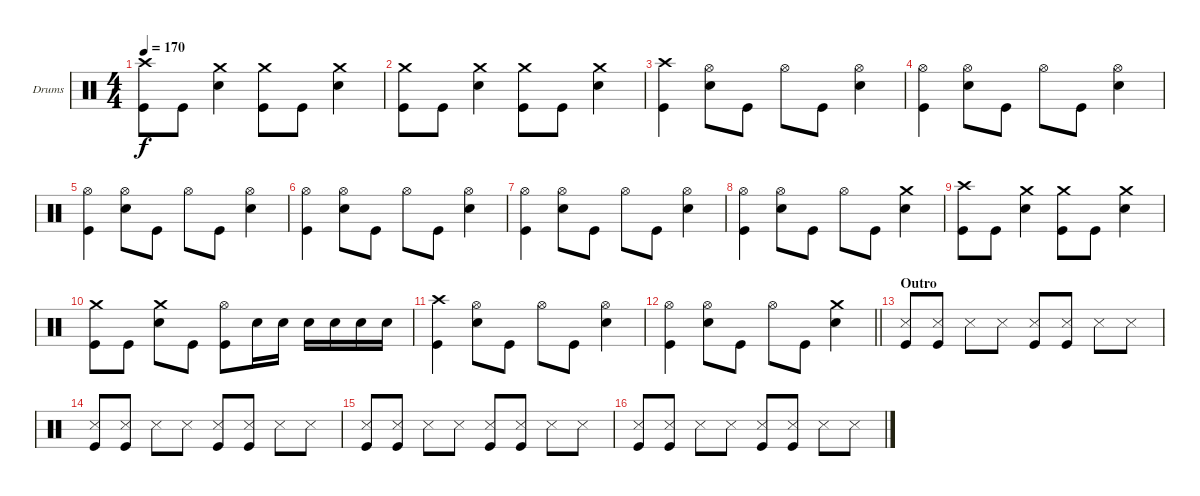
\bracketExtendMode groupsimilarinstruments
\firstSystemTrackNameOrientation horizontal
\otherSystemsTrackNameOrientation horizontal
\track ("Drumkit" "Drums") {instrument percussion}
\staff {score}
\articulation defaults
\ts (4 4)
\tempo 170
\clef neutral
\ks c
("Crash high (hit)" "Kick (hit)").8{dy f} "Kick (hit)".8 ("Crash medium (hit)" "Snare (hit) 2").4 ("Crash medium (hit)" "Kick (hit)").8 "Kick (hit)".8 ("Crash medium (hit)" "Snare (hit) 2").4 |
("Crash medium (hit)" "Kick (hit)").8 "Kick (hit)".8 ("Crash medium (hit)" "Snare (hit) 2").4 ("Crash medium (hit)" "Kick (hit)").8 "Kick (hit)".8 ("Crash medium (hit)" "Snare (hit) 2").4 |
("Crash high (hit)" "Kick (hit)").4 ("Hi-Hat (open)" "Snare (hit) 2").8 "Kick (hit)".8 "Hi-Hat (open)".8 "Kick (hit)".8 ("Hi-Hat (open)" "Snare (hit) 2").4 |
("Hi-Hat (open)" "Kick (hit)").4 ("Hi-Hat (open)" "Snare (hit) 2").8 "Kick (hit)".8 "Hi-Hat (open)".8 "Kick (hit)".8 ("Hi-Hat (open)" "Snare (hit) 2").4 |
("Hi-Hat (open)" "Kick (hit)").4 ("Hi-Hat (open)" "Snare (hit) 2").8 "Kick (hit)".8 "Hi-Hat (open)".8 "Kick (hit)".8 ("Hi-Hat (open)" "Snare (hit) 2").4 |
("Hi-Hat (open)" "Kick (hit)").4 ("Hi-Hat (open)" "Snare (hit) 2").8 "Kick (hit)".8 "Hi-Hat (open)".8 "Kick (hit)".8 ("Hi-Hat (open)" "Snare (hit) 2").4 |
("Hi-Hat (open)" "Kick (hit)").4 ("Hi-Hat (open)" "Snare (hit) 2").8 "Kick (hit)".8 "Hi-Hat (open)".8 "Kick (hit)".8 ("Hi-Hat (open)" "Snare (hit) 2").4 |
("Hi-Hat (open)" "Kick (hit)").4 ("Hi-Hat (open)" "Snare (hit) 2").8 "Kick (hit)".8 "Hi-Hat (open)".8 "Kick (hit)".8 ("Crash medium (hit)" "Snare (hit) 2").4 |
("Crash high (hit)" "Kick (hit)").8 "Kick (hit)".8 ("Crash medium (hit)" "Snare (hit) 2").4 ("Crash medium (hit)" "Kick (hit)").8 "Kick (hit)".8 ("Crash medium (hit)" "Snare (hit) 2").4 |
("Crash medium (hit)" "Kick (hit)").8 "Kick (hit)".8 ("Crash medium (hit)" "Snare (hit) 2").8 "Kick (hit)".8 ("Hi-Hat (open)" "Kick (hit)").8 "Snare (hit) 2".16 "Snare (hit) 2".16 "Snare (hit) 2".16 "Snare (hit) 2".16 "Snare (hit) 2".16 "Snare (hit) 2".16 |
("Crash high (hit)" "Kick (hit)").4 ("Hi-Hat (open)" "Snare (hit) 2").8 "Kick (hit)".8 "Hi-Hat (open)".8 "Kick (hit)".8 ("Hi-Hat (open)" "Snare (hit) 2").4 |
\barLineRight lightlight
("Hi-Hat (open)" "Kick (hit)").4 ("Hi-Hat (open)" "Snare (hit) 2").8 "Kick (hit)".8 "Hi-Hat (open)".8 "Kick (hit)".8 ("Crash medium (hit)" "Snare (hit) 2").4 |
\section ("" "Outro")
("Snare (side stick) 3" "Kick (hit)").8 ("Snare (side stick) 3" "Kick (hit)").8 "Snare (side stick) 3".8 "Snare (side stick) 3".8 ("Snare (side stick) 3" "Kick (hit)").8 ("Snare (side stick) 3" "Kick (hit)").8 "Snare (side stick) 3".8 "Snare (side stick) 3".8 |
("Snare (side stick) 3" "Kick (hit)").8 ("Snare (side stick) 3" "Kick (hit)").8 "Snare (side stick) 3".8 "Snare (side stick) 3".8 ("Snare (side stick) 3" "Kick (hit)").8 ("Snare (side stick) 3" "Kick (hit)").8 "Snare (side stick) 3".8 "Snare (side stick) 3".8 |
("Snare (side stick) 3" "Kick (hit)").8 ("Snare (side stick) 3" "Kick (hit)").8 "Snare (side stick) 3".8 "Snare (side stick) 3".8 ("Snare (side stick) 3" "Kick (hit)").8 ("Snare (side stick) 3" "Kick (hit)").8 "Snare (side stick) 3".8 "Snare (side stick) 3".8 |
("Snare (side stick) 3" "Kick (hit)").8 ("Snare (side stick) 3" "Kick (hit)").8 "Snare (side stick) 3".8 "Snare (side stick) 3".8 ("Snare (side stick) 3" "Kick (hit)").8 ("Snare (side stick) 3" "Kick (hit)").8 "Snare (side stick) 3".8 "Snare (side stick) 3".8
